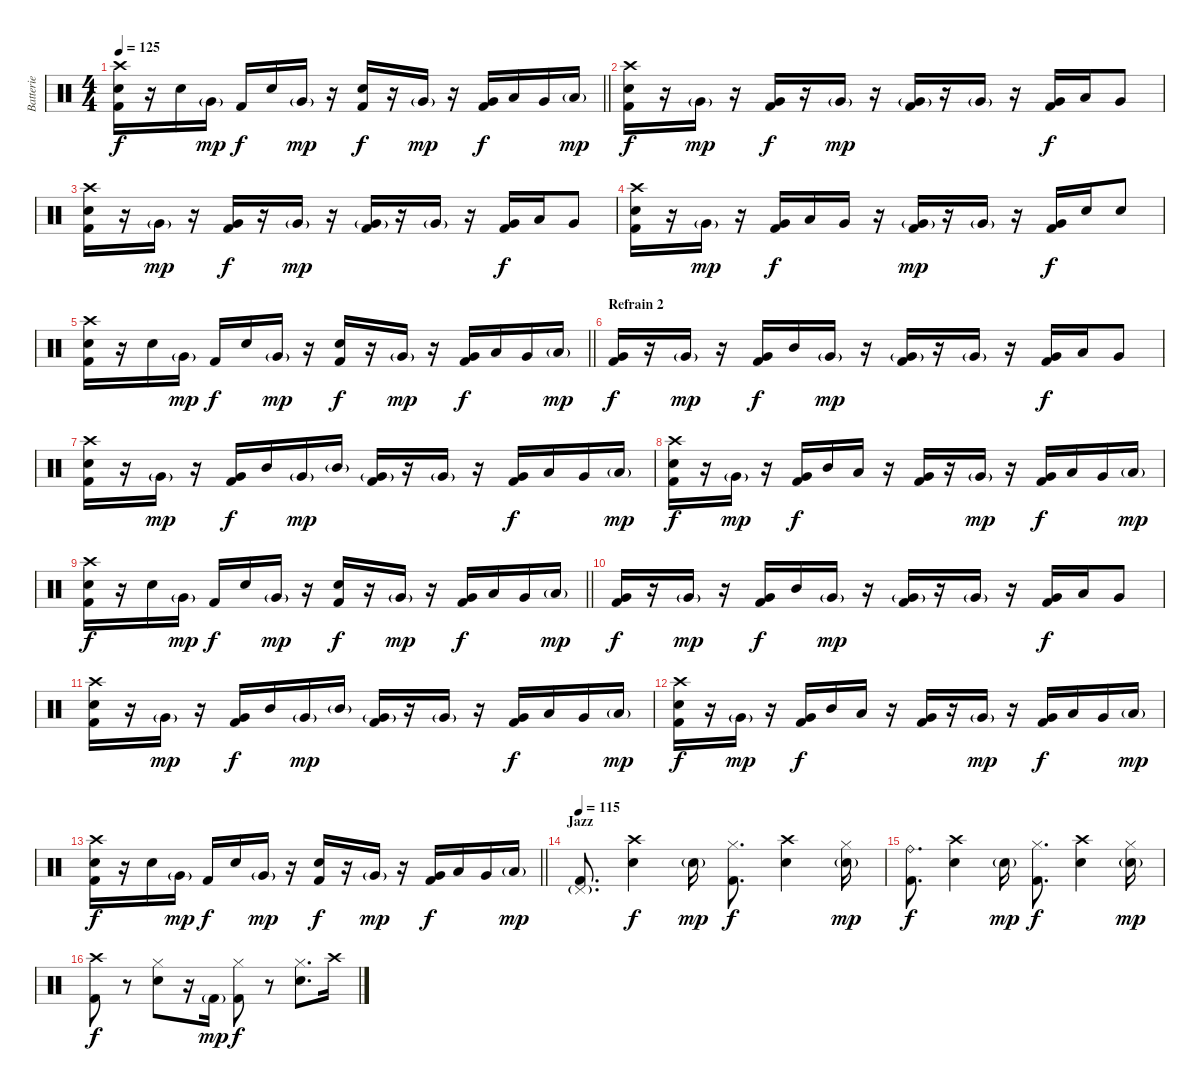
\track ("Batterie" "Batterie") {instrument percussion}
\staff {score}
\articulation defaults
\ts (4 4)
\tempo 125
\clef neutral
\barLineRight lightlight
\ks c
("Crash high (hit)" "Electric Snare (hit)" "Kick (hit) 2").16{dy f} r.16 "Electric Snare (hit)".16 "Very Low Tom (hit)"{g}.16{dy mp} "Kick (hit) 2".16{dy f} "Electric Snare (hit)".16 "Very Low Tom (hit)"{g}.16{dy mp} r.16 ("Electric Snare (hit)" "Kick (hit) 2").16{dy f} r.16 "Very Low Tom (hit)"{g}.16{dy mp} r.16 ("Very Low Tom (hit)" "Kick (hit) 2").16{dy f} "Low Tom (hit)".16 "Very Low Tom (hit)".16 "Low Tom (hit)"{g}.16{dy mp} |
("Crash high (hit)" "Electric Snare (hit)" "Kick (hit) 2").16{dy f} r.16 "Very Low Tom (hit)"{g}.16{dy mp} r.16 ("Very Low Tom (hit)" "Kick (hit) 2").16{dy f} r.16 "Very Low Tom (hit)"{g}.16{dy mp} r.16 ("Very Low Tom (hit)"{g} "Kick (hit) 2").16 r.16 "Very Low Tom (hit)"{g}.16 r.16 ("Very Low Tom (hit)" "Kick (hit) 2").16{dy f} "Low Tom (hit)".16 "Very Low Tom (hit)".8 |
("Crash high (hit)" "Electric Snare (hit)" "Kick (hit) 2").16 r.16 "Very Low Tom (hit)"{g}.16{dy mp} r.16 ("Very Low Tom (hit)" "Kick (hit) 2").16{dy f} r.16 "Very Low Tom (hit)"{g}.16{dy mp} r.16 ("Very Low Tom (hit)"{g} "Kick (hit) 2").16 r.16 "Very Low Tom (hit)"{g}.16 r.16 ("Very Low Tom (hit)" "Kick (hit) 2").16{dy f} "Low Tom (hit)".16 "Very Low Tom (hit)".8 |
("Crash high (hit)" "Electric Snare (hit)" "Kick (hit) 2").16 r.16 "Very Low Tom (hit)"{g}.16{dy mp} r.16 ("Very Low Tom (hit)" "Kick (hit) 2").16{dy f} "Low Tom (hit)".16 "Very Low Tom (hit)".16 r.16 ("Very Low Tom (hit)"{g} "Kick (hit) 2").16{dy mp} r.16 "Very Low Tom (hit)"{g}.16 r.16 ("Very Low Tom (hit)" "Kick (hit) 2").16{dy f} "Electric Snare (hit)".16 "Electric Snare (hit)".8 |
\barLineRight lightlight
("Crash high (hit)" "Electric Snare (hit)" "Kick (hit) 2").16 r.16 "Electric Snare (hit)".16 "Very Low Tom (hit)"{g}.16{dy mp} "Kick (hit) 2".16{dy f} "Electric Snare (hit)".16 "Very Low Tom (hit)"{g}.16{dy mp} r.16 ("Electric Snare (hit)" "Kick (hit) 2").16{dy f} r.16 "Very Low Tom (hit)"{g}.16{dy mp} r.16 ("Very Low Tom (hit)" "Kick (hit) 2").16{dy f} "Low Tom (hit)".16 "Very Low Tom (hit)".16 "Low Tom (hit)"{g}.16{dy mp} |
\section ("" "Refrain 2")
("Very Low Tom (hit)" "Kick (hit) 2").16{dy f} r.16 "Very Low Tom (hit)"{g}.16{dy mp} r.16 ("Very Low Tom (hit)" "Kick (hit) 2").16{dy f} "Mid Tom (hit)".16 "Very Low Tom (hit)"{g}.16{dy mp} r.16 ("Very Low Tom (hit)"{g} "Kick (hit) 2").16 r.16 "Very Low Tom (hit)"{g}.16 r.16 ("Very Low Tom (hit)" "Kick (hit) 2").16{dy f} "Low Tom (hit)".16 "Very Low Tom (hit)".8 |
("Crash high (hit)" "Electric Snare (hit)" "Kick (hit) 2").16 r.16 "Very Low Tom (hit)"{g}.16{dy mp} r.16 ("Very Low Tom (hit)" "Kick (hit) 2").16{dy f} "Mid Tom (hit)".16 "Very Low Tom (hit)"{g}.16{dy mp} "Mid Tom (hit)"{g}.16 ("Very Low Tom (hit)"{g} "Kick (hit) 2").16 r.16 "Very Low Tom (hit)"{g}.16 r.16 ("Very Low Tom (hit)" "Kick (hit) 2").16{dy f} "Low Tom (hit)".16 "Very Low Tom (hit)".16 "Low Tom (hit)"{g}.16{dy mp} |
("Crash high (hit)" "Electric Snare (hit)" "Kick (hit) 2").16{dy f} r.16 "Very Low Tom (hit)"{g}.16{dy mp} r.16 ("Very Low Tom (hit)" "Kick (hit) 2").16{dy f} "Mid Tom (hit)".16 "Low Tom (hit)".16 r.16 ("Very Low Tom (hit)" "Kick (hit) 2").16 r.16 "Very Low Tom (hit)"{g}.16{dy mp} r.16 ("Very Low Tom (hit)" "Kick (hit) 2").16{dy f} "Low Tom (hit)".16 "Very Low Tom (hit)".16 "Low Tom (hit)"{g}.16{dy mp} |
\barLineRight lightlight
("Crash high (hit)" "Electric Snare (hit)" "Kick (hit) 2").16{dy f} r.16 "Electric Snare (hit)".16 "Very Low Tom (hit)"{g}.16{dy mp} "Kick (hit) 2".16{dy f} "Electric Snare (hit)".16 "Very Low Tom (hit)"{g}.16{dy mp} r.16 ("Electric Snare (hit)" "Kick (hit) 2").16{dy f} r.16 "Very Low Tom (hit)"{g}.16{dy mp} r.16 ("Very Low Tom (hit)" "Kick (hit) 2").16{dy f} "Low Tom (hit)".16 "Very Low Tom (hit)".16 "Low Tom (hit)"{g}.16{dy mp} |
("Very Low Tom (hit)" "Kick (hit) 2").16{dy f} r.16 "Very Low Tom (hit)"{g}.16{dy mp} r.16 ("Very Low Tom (hit)" "Kick (hit) 2").16{dy f} "Mid Tom (hit)".16 "Very Low Tom (hit)"{g}.16{dy mp} r.16 ("Very Low Tom (hit)"{g} "Kick (hit) 2").16 r.16 "Very Low Tom (hit)"{g}.16 r.16 ("Very Low Tom (hit)" "Kick (hit) 2").16{dy f} "Low Tom (hit)".16 "Very Low Tom (hit)".8 |
("Crash high (hit)" "Electric Snare (hit)" "Kick (hit) 2").16 r.16 "Very Low Tom (hit)"{g}.16{dy mp} r.16 ("Very Low Tom (hit)" "Kick (hit) 2").16{dy f} "Mid Tom (hit)".16 "Very Low Tom (hit)"{g}.16{dy mp} "Mid Tom (hit)"{g}.16 ("Very Low Tom (hit)"{g} "Kick (hit) 2").16 r.16 "Very Low Tom (hit)"{g}.16 r.16 ("Very Low Tom (hit)" "Kick (hit) 2").16{dy f} "Low Tom (hit)".16 "Very Low Tom (hit)".16 "Low Tom (hit)"{g}.16{dy mp} |
("Crash high (hit)" "Electric Snare (hit)" "Kick (hit) 2").16{dy f} r.16 "Very Low Tom (hit)"{g}.16{dy mp} r.16 ("Very Low Tom (hit)" "Kick (hit) 2").16{dy f} "Mid Tom (hit)".16 "Low Tom (hit)".16 r.16 ("Very Low Tom (hit)" "Kick (hit) 2").16 r.16 "Very Low Tom (hit)"{g}.16{dy mp} r.16 ("Very Low Tom (hit)" "Kick (hit) 2").16{dy f} "Low Tom (hit)".16 "Very Low Tom (hit)".16 "Low Tom (hit)"{g}.16{dy mp} |
\barLineRight lightlight
("Crash high (hit)" "Electric Snare (hit)" "Kick (hit) 2").16{dy f} r.16 "Electric Snare (hit)".16 "Very Low Tom (hit)"{g}.16{dy mp} "Kick (hit) 2".16{dy f} "Electric Snare (hit)".16 "Very Low Tom (hit)"{g}.16{dy mp} r.16 ("Electric Snare (hit)" "Kick (hit) 2").16{dy f} r.16 "Very Low Tom (hit)"{g}.16{dy mp} r.16 ("Very Low Tom (hit)" "Kick (hit) 2").16{dy f} "Low Tom (hit)".16 "Very Low Tom (hit)".16 "Low Tom (hit)"{g}.16{dy mp} |
\section ("" "Jazz")
\tempo 115
("Pedal Hi-Hat (hit)"{g} "Kick (hit) 2").8{d} ("Crash high (hit)" "Electric Snare (hit)").4{dy f} "Electric Snare (hit)"{g}.16{dy mp} ("Hi-Hat (closed)" "Kick (hit) 2").8{d dy f} ("Crash high (hit)" "Electric Snare (hit)").4 ("Hi-Hat (closed)" "Electric Snare (hit)"{g}).16{dy mp} |
("Ride (bell)" "Kick (hit) 2").8{d dy f} ("Crash high (hit)" "Electric Snare (hit)").4 "Electric Snare (hit)"{g}.16{dy mp} ("Hi-Hat (closed)" "Kick (hit) 2").8{d dy f} ("Crash high (hit)" "Electric Snare (hit)").4 ("Hi-Hat (closed)" "Electric Snare (hit)"{g}).16{dy mp} |
("Crash high (hit)" "Kick (hit) 2").8{dy f} r.8 ("Hi-Hat (closed)" "Electric Snare (hit)").8 r.16 "Kick (hit) 2"{g}.16{dy mp} ("Hi-Hat (closed)" "Kick (hit) 2").8{dy f} r.8 ("Hi-Hat (closed)" "Electric Snare (hit)").8{d} "Crash high (hit)".16
